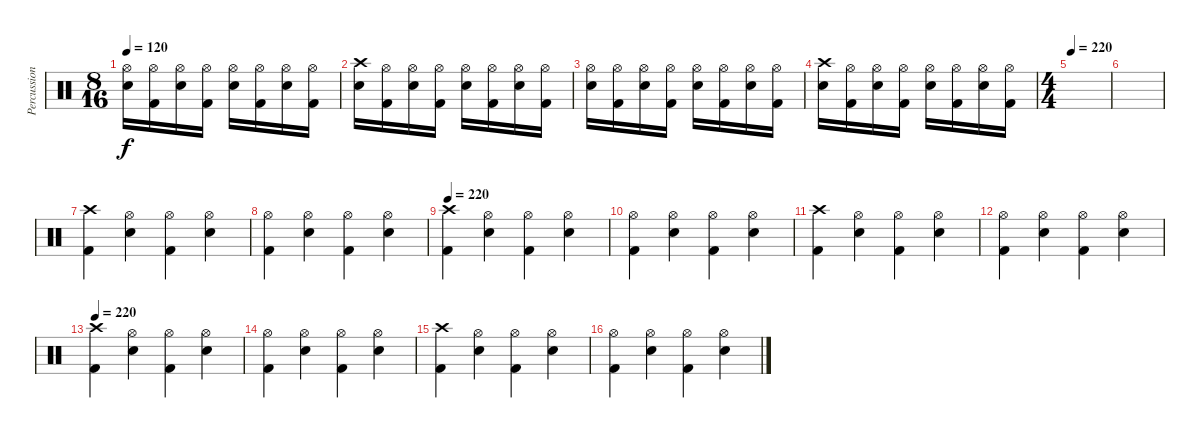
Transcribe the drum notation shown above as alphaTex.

\track ("Percussion" "Percussion") {instrument percussion}
\staff {score}
\articulation defaults
\ts (8 16)
\tempo 120
\clef neutral
\ks c
("Hi-Hat (open)" "Electric Snare (hit)").16{dy f} ("Hi-Hat (open)" "Kick (hit) 2").16 ("Hi-Hat (open)" "Electric Snare (hit)").16 ("Hi-Hat (open)" "Kick (hit) 2").16 ("Hi-Hat (open)" "Electric Snare (hit)").16 ("Hi-Hat (open)" "Kick (hit) 2").16 ("Hi-Hat (open)" "Electric Snare (hit)").16 ("Hi-Hat (open)" "Kick (hit) 2").16 |
("Crash high (hit)" "Electric Snare (hit)").16 ("Hi-Hat (open)" "Kick (hit) 2").16 ("Hi-Hat (open)" "Electric Snare (hit)").16 ("Hi-Hat (open)" "Kick (hit) 2").16 ("Hi-Hat (open)" "Electric Snare (hit)").16 ("Hi-Hat (open)" "Kick (hit) 2").16 ("Hi-Hat (open)" "Electric Snare (hit)").16 ("Hi-Hat (open)" "Kick (hit) 2").16 |
("Hi-Hat (open)" "Electric Snare (hit)").16 ("Hi-Hat (open)" "Kick (hit) 2").16 ("Hi-Hat (open)" "Electric Snare (hit)").16 ("Hi-Hat (open)" "Kick (hit) 2").16 ("Hi-Hat (open)" "Electric Snare (hit)").16 ("Hi-Hat (open)" "Kick (hit) 2").16 ("Hi-Hat (open)" "Electric Snare (hit)").16 ("Hi-Hat (open)" "Kick (hit) 2").16 |
("Crash high (hit)" "Electric Snare (hit)").16 ("Hi-Hat (open)" "Kick (hit) 2").16 ("Hi-Hat (open)" "Electric Snare (hit)").16 ("Hi-Hat (open)" "Kick (hit) 2").16 ("Hi-Hat (open)" "Electric Snare (hit)").16 ("Hi-Hat (open)" "Kick (hit) 2").16 ("Hi-Hat (open)" "Electric Snare (hit)").16 ("Hi-Hat (open)" "Kick (hit) 2").16 |
\ts (4 4)
\tempo 220
|
|
("Kick (hit) 2" "Crash high (hit)").4 ("Hi-Hat (open)" "Electric Snare (hit)").4 ("Hi-Hat (open)" "Kick (hit) 2").4 ("Hi-Hat (open)" "Electric Snare (hit)").4 |
("Kick (hit) 2" "Hi-Hat (open)").4 ("Hi-Hat (open)" "Electric Snare (hit)").4 ("Hi-Hat (open)" "Kick (hit) 2").4 ("Hi-Hat (open)" "Electric Snare (hit)").4 |
\tempo 220
("Kick (hit) 2" "Crash high (hit)").4 ("Hi-Hat (open)" "Electric Snare (hit)").4 ("Hi-Hat (open)" "Kick (hit) 2").4 ("Hi-Hat (open)" "Electric Snare (hit)").4 |
("Kick (hit) 2" "Hi-Hat (open)").4 ("Hi-Hat (open)" "Electric Snare (hit)").4 ("Hi-Hat (open)" "Kick (hit) 2").4 ("Hi-Hat (open)" "Electric Snare (hit)").4 |
("Kick (hit) 2" "Crash high (hit)").4 ("Hi-Hat (open)" "Electric Snare (hit)").4 ("Hi-Hat (open)" "Kick (hit) 2").4 ("Hi-Hat (open)" "Electric Snare (hit)").4 |
("Kick (hit) 2" "Hi-Hat (open)").4 ("Hi-Hat (open)" "Electric Snare (hit)").4 ("Hi-Hat (open)" "Kick (hit) 2").4 ("Hi-Hat (open)" "Electric Snare (hit)").4 |
\tempo 220
("Kick (hit) 2" "Crash high (hit)").4 ("Hi-Hat (open)" "Electric Snare (hit)").4 ("Hi-Hat (open)" "Kick (hit) 2").4 ("Hi-Hat (open)" "Electric Snare (hit)").4 |
("Kick (hit) 2" "Hi-Hat (open)").4 ("Hi-Hat (open)" "Electric Snare (hit)").4 ("Hi-Hat (open)" "Kick (hit) 2").4 ("Hi-Hat (open)" "Electric Snare (hit)").4 |
("Kick (hit) 2" "Crash high (hit)").4 ("Hi-Hat (open)" "Electric Snare (hit)").4 ("Hi-Hat (open)" "Kick (hit) 2").4 ("Hi-Hat (open)" "Electric Snare (hit)").4 |
("Kick (hit) 2" "Hi-Hat (open)").4 ("Hi-Hat (open)" "Electric Snare (hit)").4 ("Hi-Hat (open)" "Kick (hit) 2").4 ("Hi-Hat (open)" "Electric Snare (hit)").4
